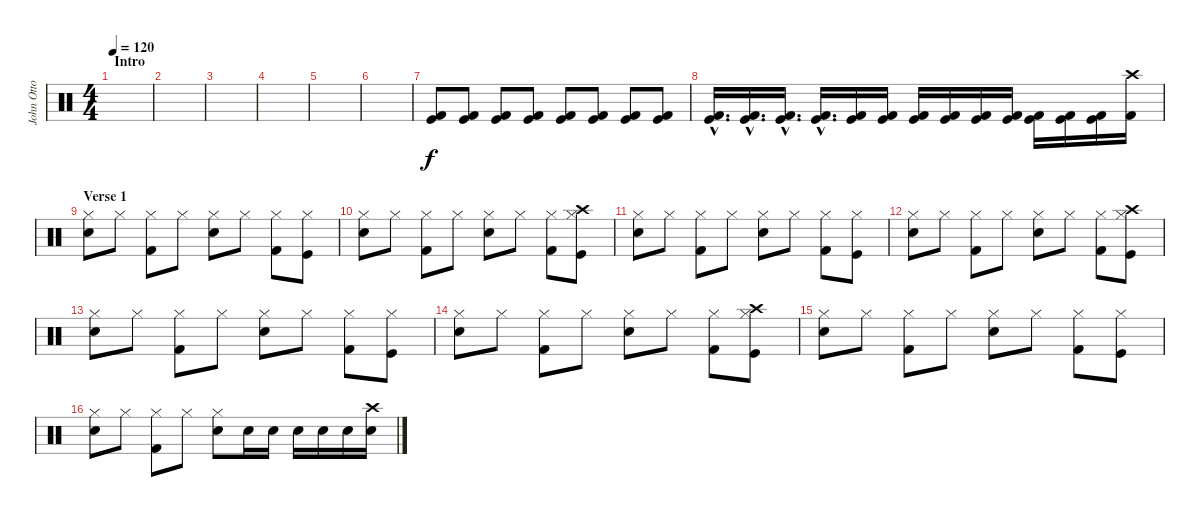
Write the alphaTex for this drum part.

\track ("John Otto (Drums)" "John Otto ") {instrument percussion}
\staff {score}
\articulation defaults
\ts (4 4)
\section ("" "Intro")
\tempo 120
\clef neutral
\ks c
|
|
|
|
|
|
("Kick (hit)" "Kick (hit) 2").8{volume 13} ("Kick (hit)" "Kick (hit) 2").8 ("Kick (hit)" "Kick (hit) 2").8 ("Kick (hit)" "Kick (hit) 2").8 ("Kick (hit)" "Kick (hit) 2").8 ("Kick (hit)" "Kick (hit) 2").8 ("Kick (hit)" "Kick (hit) 2").8 ("Kick (hit)" "Kick (hit) 2").8 |
("Kick (hit) 2"{hac} "Kick (hit)"{hac}).16{d} ("Kick (hit) 2"{hac} "Kick (hit)"{hac}).16{d} ("Kick (hit) 2"{hac} "Kick (hit)"{hac}).16{d} ("Kick (hit) 2"{hac} "Kick (hit)"{hac}).16{d} ("Kick (hit) 2" "Kick (hit)").16 ("Kick (hit) 2" "Kick (hit)").16 ("Kick (hit) 2" "Kick (hit)").16 ("Kick (hit) 2" "Kick (hit)").16 ("Kick (hit) 2" "Kick (hit)").16 ("Kick (hit) 2" "Kick (hit)").16 ("Kick (hit) 2" "Kick (hit)").16 ("Kick (hit) 2" "Kick (hit)").16 ("Kick (hit) 2" "Kick (hit)").16 ("Crash high (hit)" "Kick (hit) 2").16 |
\section ("" "Verse 1")
("Hi-Hat (closed)" "Electric Snare (hit)").8 "Hi-Hat (closed)".8 ("Hi-Hat (closed)" "Kick (hit) 2").8 "Hi-Hat (closed)".8 ("Hi-Hat (closed)" "Electric Snare (hit)").8 "Hi-Hat (closed)".8 ("Hi-Hat (closed)" "Kick (hit) 2").8 ("Hi-Hat (closed)" "Kick (hit)").8 |
("Hi-Hat (closed)" "Electric Snare (hit)").8 "Hi-Hat (closed)".8 ("Hi-Hat (closed)" "Kick (hit) 2").8 "Hi-Hat (closed)".8 ("Hi-Hat (closed)" "Electric Snare (hit)").8 "Hi-Hat (closed)".8 ("Hi-Hat (closed)" "Kick (hit) 2").8 ("Hi-Hat (closed)" "Crash high (hit)" "Kick (hit)").8 |
("Hi-Hat (closed)" "Electric Snare (hit)").8 "Hi-Hat (closed)".8 ("Hi-Hat (closed)" "Kick (hit) 2").8 "Hi-Hat (closed)".8 ("Hi-Hat (closed)" "Electric Snare (hit)").8 "Hi-Hat (closed)".8 ("Hi-Hat (closed)" "Kick (hit) 2").8 ("Hi-Hat (closed)" "Kick (hit)").8 |
("Hi-Hat (closed)" "Electric Snare (hit)").8 "Hi-Hat (closed)".8 ("Hi-Hat (closed)" "Kick (hit) 2").8 "Hi-Hat (closed)".8 ("Hi-Hat (closed)" "Electric Snare (hit)").8 "Hi-Hat (closed)".8 ("Hi-Hat (closed)" "Kick (hit) 2").8 ("Hi-Hat (closed)" "Crash high (hit)" "Kick (hit)").8 |
("Hi-Hat (closed)" "Electric Snare (hit)").8 "Hi-Hat (closed)".8 ("Hi-Hat (closed)" "Kick (hit) 2").8 "Hi-Hat (closed)".8 ("Hi-Hat (closed)" "Electric Snare (hit)").8 "Hi-Hat (closed)".8 ("Hi-Hat (closed)" "Kick (hit) 2").8 ("Hi-Hat (closed)" "Kick (hit)").8 |
("Hi-Hat (closed)" "Electric Snare (hit)").8 "Hi-Hat (closed)".8 ("Hi-Hat (closed)" "Kick (hit) 2").8 "Hi-Hat (closed)".8 ("Hi-Hat (closed)" "Electric Snare (hit)").8 "Hi-Hat (closed)".8 ("Hi-Hat (closed)" "Kick (hit) 2").8 ("Hi-Hat (closed)" "Crash high (hit)" "Kick (hit)").8 |
("Hi-Hat (closed)" "Electric Snare (hit)").8 "Hi-Hat (closed)".8 ("Hi-Hat (closed)" "Kick (hit) 2").8 "Hi-Hat (closed)".8 ("Hi-Hat (closed)" "Electric Snare (hit)").8 "Hi-Hat (closed)".8 ("Hi-Hat (closed)" "Kick (hit) 2").8 ("Hi-Hat (closed)" "Kick (hit)").8 |
("Hi-Hat (closed)" "Electric Snare (hit)").8 "Hi-Hat (closed)".8 ("Hi-Hat (closed)" "Kick (hit) 2").8 "Hi-Hat (closed)".8 ("Hi-Hat (closed)" "Electric Snare (hit)").8 "Snare (hit) 2".16 "Snare (hit) 2".16 "Electric Snare (hit)".16 "Electric Snare (hit)".16 "Snare (hit) 2".16 ("Electric Snare (hit)" "Crash high (hit)").16
